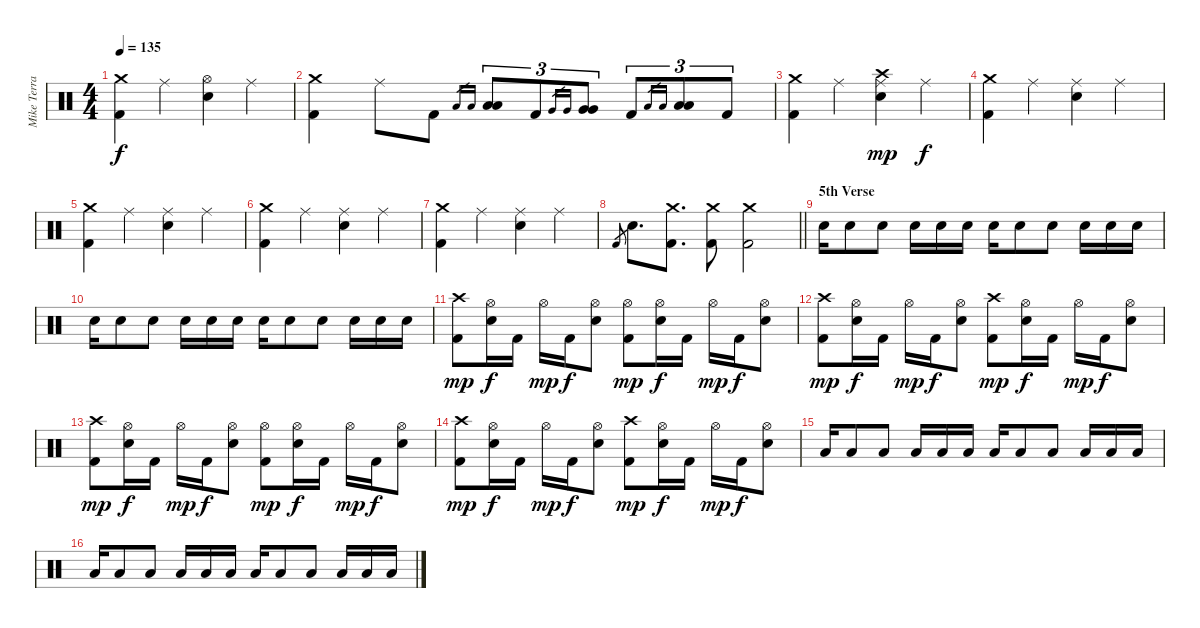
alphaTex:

\track ("Mike Terrana" "Mike Terra") {instrument percussion}
\staff {score}
\articulation defaults
\ts (4 4)
\tempo 135
\clef neutral
\ks c
("Crash medium (hit)" "Kick (hit) 2").4{dy f} "Ride (middle)".4 ("Hi-Hat (open)" "Snare (hit) 2").4 "Ride (middle)".4 |
("Crash medium (hit)" "Kick (hit) 2").4 "Ride (middle)".8 "Kick (hit) 2".8 "Low Tom (hit)".16{gr} "Low Tom (hit)".16{gr} ("Low Tom (hit)" "Low Tom (hit)").8{tu (3 2)} "Kick (hit) 2".8{tu (3 2)} "Very Low Tom (hit)".16{gr} "Very Low Tom (hit)".16{gr} ("Very Low Tom (hit)" "Very Low Tom (hit)").8{tu (3 2)} "Kick (hit) 2".8{tu (3 2)} "Low Floor Tom (hit)".16{gr} "Low Floor Tom (hit)".16{gr} ("Low Floor Tom (hit)" "Low Floor Tom (hit)").8{tu (3 2)} "Kick (hit) 2".8{tu (3 2)} |
("Crash medium (hit)" "Kick (hit) 2").4 "Ride (middle)".4 ("Ride (middle)" "Crash high (hit)" "Snare (hit) 2").4{dy mp} "Ride (middle)".4{dy f} |
("Crash medium (hit)" "Kick (hit) 2").4 "Ride (middle)".4 ("Ride (middle)" "Snare (hit) 2").4 "Ride (middle)".4 |
("Crash medium (hit)" "Kick (hit) 2").4 "Ride (middle)".4 ("Ride (middle)" "Snare (hit) 2").4 "Ride (middle)".4 |
("Crash medium (hit)" "Kick (hit) 2").4 "Ride (middle)".4 ("Ride (middle)" "Snare (hit) 2").4 "Ride (middle)".4 |
("Crash medium (hit)" "Kick (hit) 2").4 "Ride (middle)".4 ("Ride (middle)" "Snare (hit) 2").4 "Ride (middle)".4 |
\barLineRight lightlight "Kick (hit) 2".8{gr} "Snare (hit) 2".8{d}
("Crash medium (hit)" "Kick (hit) 2").8{d} ("Crash medium (hit)" "Kick (hit) 2").8 ("Crash medium (hit)" "Kick (hit) 2").2 |
\section ("" "5th Verse")
"Snare (hit) 2".16 "Snare (hit) 2".8 "Snare (hit) 2".8 "Snare (hit) 2".16 "Snare (hit) 2".16 "Snare (hit) 2".16 "Snare (hit) 2".16 "Snare (hit) 2".8 "Snare (hit) 2".8 "Snare (hit) 2".16 "Snare (hit) 2".16 "Snare (hit) 2".16 |
"Snare (hit) 2".16 "Snare (hit) 2".8 "Snare (hit) 2".8 "Snare (hit) 2".16 "Snare (hit) 2".16 "Snare (hit) 2".16 "Snare (hit) 2".16 "Snare (hit) 2".8 "Snare (hit) 2".8 "Snare (hit) 2".16 "Snare (hit) 2".16 "Snare (hit) 2".16 |
("Crash high (hit)" "Kick (hit) 2").8{dy mp} ("Hi-Hat (open)" "Snare (hit) 2").16{dy f} "Kick (hit) 2".16 "Hi-Hat (open)".16{dy mp} "Kick (hit) 2".16{dy f} ("Hi-Hat (open)" "Snare (hit) 2").8 ("Hi-Hat (open)" "Kick (hit) 2").8{dy mp} ("Hi-Hat (open)" "Snare (hit) 2").16{dy f} "Kick (hit) 2".16 "Hi-Hat (open)".16{dy mp} "Kick (hit) 2".16{dy f} ("Hi-Hat (open)" "Snare (hit) 2").8 |
("Crash high (hit)" "Kick (hit) 2").8{dy mp} ("Hi-Hat (open)" "Snare (hit) 2").16{dy f} "Kick (hit) 2".16 "Hi-Hat (open)".16{dy mp} "Kick (hit) 2".16{dy f} ("Hi-Hat (open)" "Snare (hit) 2").8 ("Crash high (hit)" "Kick (hit) 2").8{dy mp} ("Hi-Hat (open)" "Snare (hit) 2").16{dy f} "Kick (hit) 2".16 "Hi-Hat (open)".16{dy mp} "Kick (hit) 2".16{dy f} ("Hi-Hat (open)" "Snare (hit) 2").8 |
("Crash high (hit)" "Kick (hit) 2").8{dy mp} ("Hi-Hat (open)" "Snare (hit) 2").16{dy f} "Kick (hit) 2".16 "Hi-Hat (open)".16{dy mp} "Kick (hit) 2".16{dy f} ("Hi-Hat (open)" "Snare (hit) 2").8 ("Hi-Hat (open)" "Kick (hit) 2").8{dy mp} ("Hi-Hat (open)" "Snare (hit) 2").16{dy f} "Kick (hit) 2".16 "Hi-Hat (open)".16{dy mp} "Kick (hit) 2".16{dy f} ("Hi-Hat (open)" "Snare (hit) 2").8 |
("Crash high (hit)" "Kick (hit) 2").8{dy mp} ("Hi-Hat (open)" "Snare (hit) 2").16{dy f} "Kick (hit) 2".16 "Hi-Hat (open)".16{dy mp} "Kick (hit) 2".16{dy f} ("Hi-Hat (open)" "Snare (hit) 2").8 ("Crash high (hit)" "Kick (hit) 2").8{dy mp} ("Hi-Hat (open)" "Snare (hit) 2").16{dy f} "Kick (hit) 2".16 "Hi-Hat (open)".16{dy mp} "Kick (hit) 2".16{dy f} ("Hi-Hat (open)" "Snare (hit) 2").8 |
"Low Tom (hit)".16{balance 0} "Low Tom (hit)".8 "Low Tom (hit)".8{balance 2} "Low Tom (hit)".16 "Low Tom (hit)".16{balance 4} "Low Tom (hit)".16 "Low Tom (hit)".16{balance 5} "Low Tom (hit)".8 "Low Tom (hit)".8{balance 6} "Low Tom (hit)".16 "Low Tom (hit)".16{balance 7} "Low Tom (hit)".16{balance 8} |
"Low Tom (hit)".16 "Low Tom (hit)".8{balance 9} "Low Tom (hit)".8 "Low Tom (hit)".16{balance 10} "Low Tom (hit)".16 "Low Tom (hit)".16{balance 11} "Low Tom (hit)".16 "Low Tom (hit)".8{balance 12} "Low Tom (hit)".8 "Low Tom (hit)".16{balance 14} "Low Tom (hit)".16 "Low Tom (hit)".16{balance 16}
